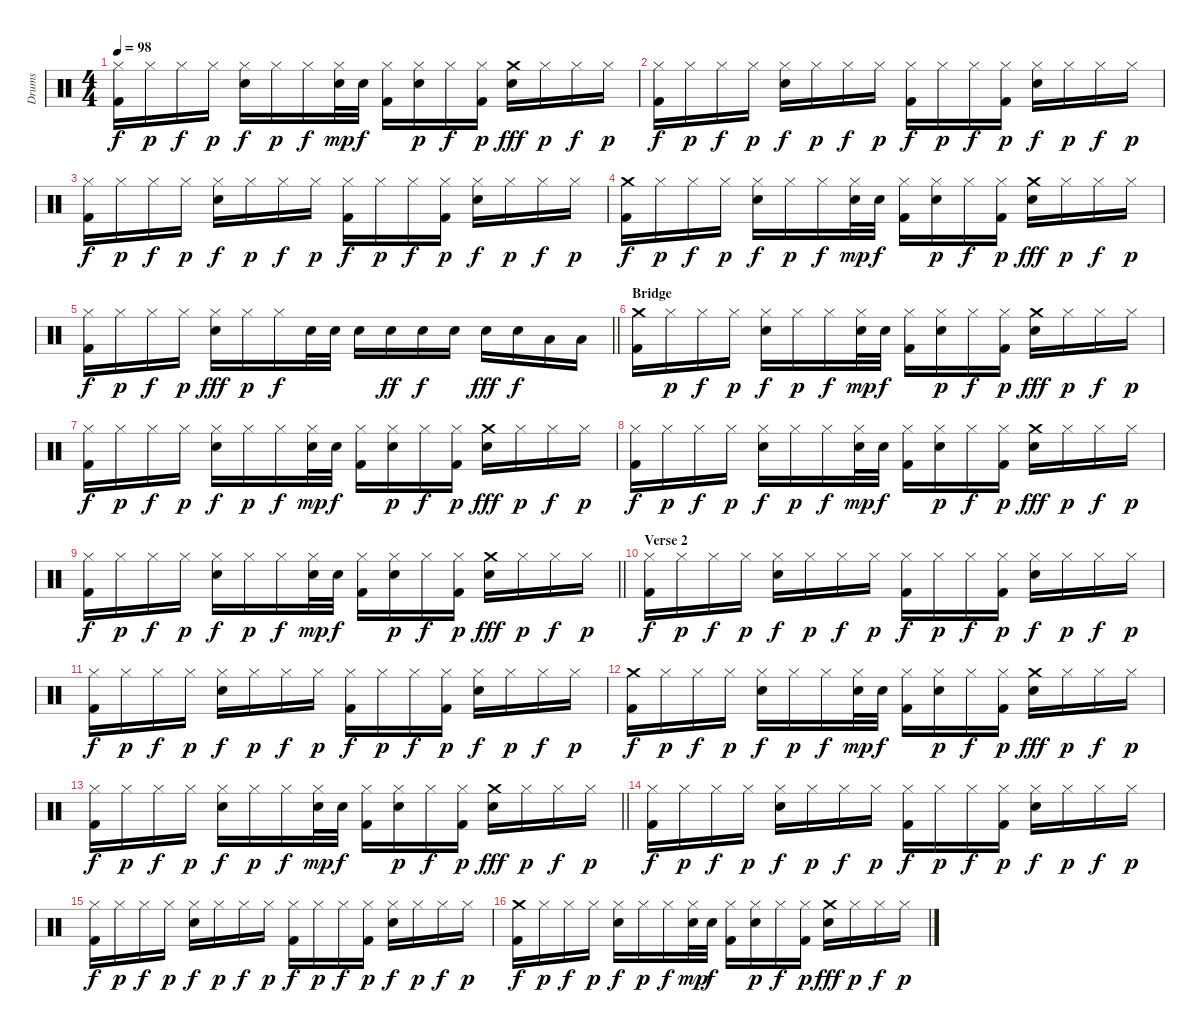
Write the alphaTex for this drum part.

\track ("Drums" "Drums") {instrument percussion}
\staff {score}
\articulation defaults
\ts (4 4)
\tempo 98
\clef neutral
\ks c
("Hi-Hat (closed)" "Kick (hit) 2").16{dy f} "Hi-Hat (closed)".16{dy p} "Hi-Hat (closed)".16{dy f} "Hi-Hat (closed)".16{dy p} ("Hi-Hat (closed)" "Electric Snare (hit)").16{dy f} "Hi-Hat (closed)".16{dy p} "Hi-Hat (closed)".16{dy f} ("Hi-Hat (closed)" "Electric Snare (hit)").32{dy mp} "Electric Snare (hit)".32{dy f} ("Hi-Hat (closed)" "Kick (hit) 2").16 ("Hi-Hat (closed)" "Electric Snare (hit)").16{dy p} "Hi-Hat (closed)".16{dy f} ("Hi-Hat (closed)" "Kick (hit) 2").16{dy p} ("Crash medium (hit)" "Electric Snare (hit)").16{dy fff} "Hi-Hat (closed)".16{dy p} "Hi-Hat (closed)".16{dy f} "Hi-Hat (closed)".16{dy p} |
("Hi-Hat (closed)" "Kick (hit) 2").16{dy f} "Hi-Hat (closed)".16{dy p} "Hi-Hat (closed)".16{dy f} "Hi-Hat (closed)".16{dy p} ("Hi-Hat (closed)" "Electric Snare (hit)").16{dy f} "Hi-Hat (closed)".16{dy p} "Hi-Hat (closed)".16{dy f} "Hi-Hat (closed)".16{dy p} ("Hi-Hat (closed)" "Kick (hit) 2").16{dy f} "Hi-Hat (closed)".16{dy p} "Hi-Hat (closed)".16{dy f} ("Hi-Hat (closed)" "Kick (hit) 2").16{dy p} ("Hi-Hat (closed)" "Electric Snare (hit)").16{dy f} "Hi-Hat (closed)".16{dy p} "Hi-Hat (closed)".16{dy f} "Hi-Hat (closed)".16{dy p} |
("Hi-Hat (closed)" "Kick (hit) 2").16{dy f} "Hi-Hat (closed)".16{dy p} "Hi-Hat (closed)".16{dy f} "Hi-Hat (closed)".16{dy p} ("Hi-Hat (closed)" "Electric Snare (hit)").16{dy f} "Hi-Hat (closed)".16{dy p} "Hi-Hat (closed)".16{dy f} "Hi-Hat (closed)".16{dy p} ("Hi-Hat (closed)" "Kick (hit) 2").16{dy f} "Hi-Hat (closed)".16{dy p} "Hi-Hat (closed)".16{dy f} ("Hi-Hat (closed)" "Kick (hit) 2").16{dy p} ("Hi-Hat (closed)" "Electric Snare (hit)").16{dy f} "Hi-Hat (closed)".16{dy p} "Hi-Hat (closed)".16{dy f} "Hi-Hat (closed)".16{dy p} |
("Crash medium (hit)" "Kick (hit) 2").16{dy f} "Hi-Hat (closed)".16{dy p} "Hi-Hat (closed)".16{dy f} "Hi-Hat (closed)".16{dy p} ("Hi-Hat (closed)" "Electric Snare (hit)").16{dy f} "Hi-Hat (closed)".16{dy p} "Hi-Hat (closed)".16{dy f} ("Hi-Hat (closed)" "Electric Snare (hit)").32{dy mp} "Electric Snare (hit)".32{dy f} ("Hi-Hat (closed)" "Kick (hit) 2").16 ("Hi-Hat (closed)" "Electric Snare (hit)").16{dy p} "Hi-Hat (closed)".16{dy f} ("Hi-Hat (closed)" "Kick (hit) 2").16{dy p} ("Crash medium (hit)" "Electric Snare (hit)").16{dy fff} "Hi-Hat (closed)".16{dy p} "Hi-Hat (closed)".16{dy f} "Hi-Hat (closed)".16{dy p} |
\barLineRight lightlight
("Hi-Hat (closed)" "Kick (hit) 2").16{dy f} "Hi-Hat (closed)".16{dy p} "Hi-Hat (closed)".16{dy f} "Hi-Hat (closed)".16{dy p} ("Hi-Hat (closed)" "Electric Snare (hit)").16{dy fff} "Hi-Hat (closed)".16{dy p} "Hi-Hat (closed)".16{dy f} "Snare (hit) 2".32 "Snare (hit) 2".32 "Electric Snare (hit)".16 "Electric Snare (hit)".16{dy ff} "Electric Snare (hit)".16{dy f} "Electric Snare (hit)".16 "Electric Snare (hit)".16{dy fff} "Electric Snare (hit)".16{dy f} "Low Tom (hit)".16 "Low Tom (hit)".16 |
\section ("" "Bridge")
("Crash medium (hit)" "Kick (hit) 2").16 "Hi-Hat (closed)".16{dy p} "Hi-Hat (closed)".16{dy f} "Hi-Hat (closed)".16{dy p} ("Hi-Hat (closed)" "Electric Snare (hit)").16{dy f} "Hi-Hat (closed)".16{dy p} "Hi-Hat (closed)".16{dy f} ("Hi-Hat (closed)" "Electric Snare (hit)").32{dy mp} "Electric Snare (hit)".32{dy f} ("Hi-Hat (closed)" "Kick (hit) 2").16 ("Hi-Hat (closed)" "Electric Snare (hit)").16{dy p} "Hi-Hat (closed)".16{dy f} ("Hi-Hat (closed)" "Kick (hit) 2").16{dy p} ("Crash medium (hit)" "Electric Snare (hit)").16{dy fff} "Hi-Hat (closed)".16{dy p} "Hi-Hat (closed)".16{dy f} "Hi-Hat (closed)".16{dy p} |
("Hi-Hat (closed)" "Kick (hit) 2").16{dy f} "Hi-Hat (closed)".16{dy p} "Hi-Hat (closed)".16{dy f} "Hi-Hat (closed)".16{dy p} ("Hi-Hat (closed)" "Electric Snare (hit)").16{dy f} "Hi-Hat (closed)".16{dy p} "Hi-Hat (closed)".16{dy f} ("Hi-Hat (closed)" "Electric Snare (hit)").32{dy mp} "Electric Snare (hit)".32{dy f} ("Hi-Hat (closed)" "Kick (hit) 2").16 ("Hi-Hat (closed)" "Electric Snare (hit)").16{dy p} "Hi-Hat (closed)".16{dy f} ("Hi-Hat (closed)" "Kick (hit) 2").16{dy p} ("Crash medium (hit)" "Electric Snare (hit)").16{dy fff} "Hi-Hat (closed)".16{dy p} "Hi-Hat (closed)".16{dy f} "Hi-Hat (closed)".16{dy p} |
("Hi-Hat (closed)" "Kick (hit) 2").16{dy f} "Hi-Hat (closed)".16{dy p} "Hi-Hat (closed)".16{dy f} "Hi-Hat (closed)".16{dy p} ("Hi-Hat (closed)" "Electric Snare (hit)").16{dy f} "Hi-Hat (closed)".16{dy p} "Hi-Hat (closed)".16{dy f} ("Hi-Hat (closed)" "Electric Snare (hit)").32{dy mp} "Electric Snare (hit)".32{dy f} ("Hi-Hat (closed)" "Kick (hit) 2").16 ("Hi-Hat (closed)" "Electric Snare (hit)").16{dy p} "Hi-Hat (closed)".16{dy f} ("Hi-Hat (closed)" "Kick (hit) 2").16{dy p} ("Crash medium (hit)" "Electric Snare (hit)").16{dy fff} "Hi-Hat (closed)".16{dy p} "Hi-Hat (closed)".16{dy f} "Hi-Hat (closed)".16{dy p} |
\barLineRight lightlight
("Hi-Hat (closed)" "Kick (hit) 2").16{dy f} "Hi-Hat (closed)".16{dy p} "Hi-Hat (closed)".16{dy f} "Hi-Hat (closed)".16{dy p} ("Hi-Hat (closed)" "Electric Snare (hit)").16{dy f} "Hi-Hat (closed)".16{dy p} "Hi-Hat (closed)".16{dy f} ("Hi-Hat (closed)" "Electric Snare (hit)").32{dy mp} "Electric Snare (hit)".32{dy f} ("Hi-Hat (closed)" "Kick (hit) 2").16 ("Hi-Hat (closed)" "Electric Snare (hit)").16{dy p} "Hi-Hat (closed)".16{dy f} ("Hi-Hat (closed)" "Kick (hit) 2").16{dy p} ("Crash medium (hit)" "Electric Snare (hit)").16{dy fff} "Hi-Hat (closed)".16{dy p} "Hi-Hat (closed)".16{dy f} "Hi-Hat (closed)".16{dy p} |
\section ("" "Verse 2")
("Hi-Hat (closed)" "Kick (hit) 2").16{dy f} "Hi-Hat (closed)".16{dy p} "Hi-Hat (closed)".16{dy f} "Hi-Hat (closed)".16{dy p} ("Hi-Hat (closed)" "Electric Snare (hit)").16{dy f} "Hi-Hat (closed)".16{dy p} "Hi-Hat (closed)".16{dy f} "Hi-Hat (closed)".16{dy p} ("Hi-Hat (closed)" "Kick (hit) 2").16{dy f} "Hi-Hat (closed)".16{dy p} "Hi-Hat (closed)".16{dy f} ("Hi-Hat (closed)" "Kick (hit) 2").16{dy p} ("Hi-Hat (closed)" "Electric Snare (hit)").16{dy f} "Hi-Hat (closed)".16{dy p} "Hi-Hat (closed)".16{dy f} "Hi-Hat (closed)".16{dy p} |
("Hi-Hat (closed)" "Kick (hit) 2").16{dy f} "Hi-Hat (closed)".16{dy p} "Hi-Hat (closed)".16{dy f} "Hi-Hat (closed)".16{dy p} ("Hi-Hat (closed)" "Electric Snare (hit)").16{dy f} "Hi-Hat (closed)".16{dy p} "Hi-Hat (closed)".16{dy f} "Hi-Hat (closed)".16{dy p} ("Hi-Hat (closed)" "Kick (hit) 2").16{dy f} "Hi-Hat (closed)".16{dy p} "Hi-Hat (closed)".16{dy f} ("Hi-Hat (closed)" "Kick (hit) 2").16{dy p} ("Hi-Hat (closed)" "Electric Snare (hit)").16{dy f} "Hi-Hat (closed)".16{dy p} "Hi-Hat (closed)".16{dy f} "Hi-Hat (closed)".16{dy p} |
("Crash medium (hit)" "Kick (hit) 2").16{dy f} "Hi-Hat (closed)".16{dy p} "Hi-Hat (closed)".16{dy f} "Hi-Hat (closed)".16{dy p} ("Hi-Hat (closed)" "Electric Snare (hit)").16{dy f} "Hi-Hat (closed)".16{dy p} "Hi-Hat (closed)".16{dy f} ("Hi-Hat (closed)" "Electric Snare (hit)").32{dy mp} "Electric Snare (hit)".32{dy f} ("Hi-Hat (closed)" "Kick (hit) 2").16 ("Hi-Hat (closed)" "Electric Snare (hit)").16{dy p} "Hi-Hat (closed)".16{dy f} ("Hi-Hat (closed)" "Kick (hit) 2").16{dy p} ("Crash medium (hit)" "Electric Snare (hit)").16{dy fff} "Hi-Hat (closed)".16{dy p} "Hi-Hat (closed)".16{dy f} "Hi-Hat (closed)".16{dy p} |
\barLineRight lightlight
("Hi-Hat (closed)" "Kick (hit) 2").16{dy f} "Hi-Hat (closed)".16{dy p} "Hi-Hat (closed)".16{dy f} "Hi-Hat (closed)".16{dy p} ("Hi-Hat (closed)" "Electric Snare (hit)").16{dy f} "Hi-Hat (closed)".16{dy p} "Hi-Hat (closed)".16{dy f} ("Hi-Hat (closed)" "Electric Snare (hit)").32{dy mp} "Electric Snare (hit)".32{dy f} ("Hi-Hat (closed)" "Kick (hit) 2").16 ("Hi-Hat (closed)" "Electric Snare (hit)").16{dy p} "Hi-Hat (closed)".16{dy f} ("Hi-Hat (closed)" "Kick (hit) 2").16{dy p} ("Crash medium (hit)" "Electric Snare (hit)").16{dy fff} "Hi-Hat (closed)".16{dy p} "Hi-Hat (closed)".16{dy f} "Hi-Hat (closed)".16{dy p} |
("Hi-Hat (closed)" "Kick (hit) 2").16{dy f} "Hi-Hat (closed)".16{dy p} "Hi-Hat (closed)".16{dy f} "Hi-Hat (closed)".16{dy p} ("Hi-Hat (closed)" "Electric Snare (hit)").16{dy f} "Hi-Hat (closed)".16{dy p} "Hi-Hat (closed)".16{dy f} "Hi-Hat (closed)".16{dy p} ("Hi-Hat (closed)" "Kick (hit) 2").16{dy f} "Hi-Hat (closed)".16{dy p} "Hi-Hat (closed)".16{dy f} ("Hi-Hat (closed)" "Kick (hit) 2").16{dy p} ("Hi-Hat (closed)" "Electric Snare (hit)").16{dy f} "Hi-Hat (closed)".16{dy p} "Hi-Hat (closed)".16{dy f} "Hi-Hat (closed)".16{dy p} |
("Hi-Hat (closed)" "Kick (hit) 2").16{dy f} "Hi-Hat (closed)".16{dy p} "Hi-Hat (closed)".16{dy f} "Hi-Hat (closed)".16{dy p} ("Hi-Hat (closed)" "Electric Snare (hit)").16{dy f} "Hi-Hat (closed)".16{dy p} "Hi-Hat (closed)".16{dy f} "Hi-Hat (closed)".16{dy p} ("Hi-Hat (closed)" "Kick (hit) 2").16{dy f} "Hi-Hat (closed)".16{dy p} "Hi-Hat (closed)".16{dy f} ("Hi-Hat (closed)" "Kick (hit) 2").16{dy p} ("Hi-Hat (closed)" "Electric Snare (hit)").16{dy f} "Hi-Hat (closed)".16{dy p} "Hi-Hat (closed)".16{dy f} "Hi-Hat (closed)".16{dy p} |
("Crash medium (hit)" "Kick (hit) 2").16{dy f} "Hi-Hat (closed)".16{dy p} "Hi-Hat (closed)".16{dy f} "Hi-Hat (closed)".16{dy p} ("Hi-Hat (closed)" "Electric Snare (hit)").16{dy f} "Hi-Hat (closed)".16{dy p} "Hi-Hat (closed)".16{dy f} ("Hi-Hat (closed)" "Electric Snare (hit)").32{dy mp} "Electric Snare (hit)".32{dy f} ("Hi-Hat (closed)" "Kick (hit) 2").16 ("Hi-Hat (closed)" "Electric Snare (hit)").16{dy p} "Hi-Hat (closed)".16{dy f} ("Hi-Hat (closed)" "Kick (hit) 2").16{dy p} ("Crash medium (hit)" "Electric Snare (hit)").16{dy fff} "Hi-Hat (closed)".16{dy p} "Hi-Hat (closed)".16{dy f} "Hi-Hat (closed)".16{dy p}
